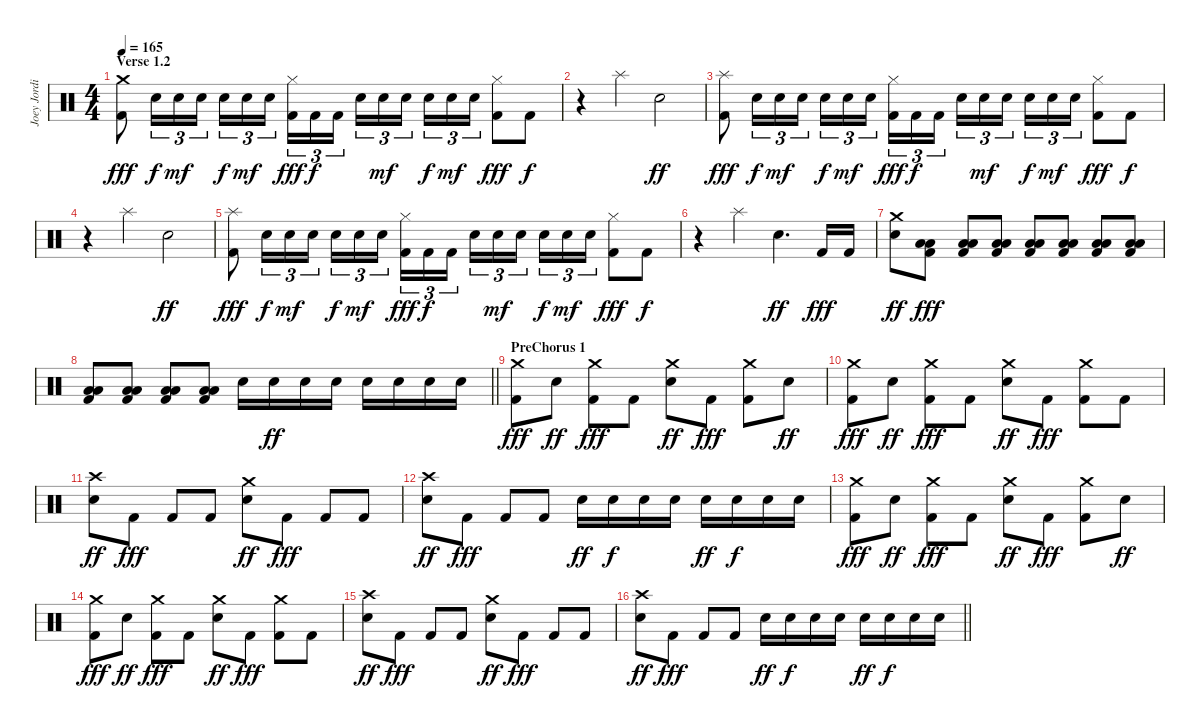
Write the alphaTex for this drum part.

\track ("Joey Jordison" "Joey Jordi") {instrument percussion}
\staff {score}
\articulation defaults
\ts (4 4)
\section ("" "Verse 1.2")
\tempo 165
\clef neutral
\ks c
("Crash medium (hit)" "Kick (hit) 2").8{dy fff} "Electric Snare (hit)".16{tu (3 2) dy f} "Electric Snare (hit)".16{tu (3 2) dy mf} "Electric Snare (hit)".16{tu (3 2)} "Electric Snare (hit)".16{tu (3 2) dy f} "Electric Snare (hit)".16{tu (3 2) dy mf} "Electric Snare (hit)".16{tu (3 2) beam splitsecondary} ("Hi-Hat (closed)" "Kick (hit) 2").16{tu (3 2) dy fff} "Kick (hit) 2".16{tu (3 2) dy f} "Kick (hit) 2".16{tu (3 2)} "Electric Snare (hit)".16{tu (3 2)} "Electric Snare (hit)".16{tu (3 2) dy mf} "Electric Snare (hit)".16{tu (3 2) beam splitsecondary} "Electric Snare (hit)".16{tu (3 2) dy f} "Electric Snare (hit)".16{tu (3 2) dy mf} "Electric Snare (hit)".16{tu (3 2)} ("Hi-Hat (closed)" "Kick (hit) 2").8{dy fff} "Kick (hit) 2".8{dy f} |
r.4 "Splash (hit)".4 "Electric Snare (hit)".2{dy ff} |
("Splash (hit)" "Kick (hit) 2").8{dy fff} "Electric Snare (hit)".16{tu (3 2) dy f} "Electric Snare (hit)".16{tu (3 2) dy mf} "Electric Snare (hit)".16{tu (3 2)} "Electric Snare (hit)".16{tu (3 2) dy f} "Electric Snare (hit)".16{tu (3 2) dy mf} "Electric Snare (hit)".16{tu (3 2) beam splitsecondary} ("Hi-Hat (closed)" "Kick (hit) 2").16{tu (3 2) dy fff} "Kick (hit) 2".16{tu (3 2) dy f} "Kick (hit) 2".16{tu (3 2)} "Electric Snare (hit)".16{tu (3 2)} "Electric Snare (hit)".16{tu (3 2) dy mf} "Electric Snare (hit)".16{tu (3 2) beam splitsecondary} "Electric Snare (hit)".16{tu (3 2) dy f} "Electric Snare (hit)".16{tu (3 2) dy mf} "Electric Snare (hit)".16{tu (3 2)} ("Hi-Hat (closed)" "Kick (hit) 2").8{dy fff} "Kick (hit) 2".8{dy f} |
r.4 "Splash (hit)".4 "Electric Snare (hit)".2{dy ff} |
("Splash (hit)" "Kick (hit) 2").8{dy fff} "Electric Snare (hit)".16{tu (3 2) dy f} "Electric Snare (hit)".16{tu (3 2) dy mf} "Electric Snare (hit)".16{tu (3 2)} "Electric Snare (hit)".16{tu (3 2) dy f} "Electric Snare (hit)".16{tu (3 2) dy mf} "Electric Snare (hit)".16{tu (3 2) beam splitsecondary} ("Hi-Hat (closed)" "Kick (hit) 2").16{tu (3 2) dy fff} "Kick (hit) 2".16{tu (3 2) dy f} "Kick (hit) 2".16{tu (3 2)} "Electric Snare (hit)".16{tu (3 2)} "Electric Snare (hit)".16{tu (3 2) dy mf} "Electric Snare (hit)".16{tu (3 2) beam splitsecondary} "Electric Snare (hit)".16{tu (3 2) dy f} "Electric Snare (hit)".16{tu (3 2) dy mf} "Electric Snare (hit)".16{tu (3 2)} ("Hi-Hat (closed)" "Kick (hit) 2").8{dy fff} "Kick (hit) 2".8{dy f} |
r.4 "Splash (hit)".4 "Electric Snare (hit)".4{d dy ff} "Kick (hit) 2".16{dy fff} "Kick (hit) 2".16 |
("Crash medium (hit)" "Electric Snare (hit)").8{dy ff} ("Low Tom (hit)" "Low Floor Tom (hit)" "Kick (hit) 2").8{dy fff} ("Low Tom (hit)" "Low Floor Tom (hit)" "Kick (hit) 2").8 ("Low Tom (hit)" "Low Floor Tom (hit)" "Kick (hit) 2").8 ("Low Tom (hit)" "Low Floor Tom (hit)" "Kick (hit) 2").8 ("Low Tom (hit)" "Low Floor Tom (hit)" "Kick (hit) 2").8 ("Low Tom (hit)" "Low Floor Tom (hit)" "Kick (hit) 2").8 ("Low Tom (hit)" "Low Floor Tom (hit)" "Kick (hit) 2").8 |
\barLineRight lightlight
("Low Tom (hit)" "Low Floor Tom (hit)" "Kick (hit) 2").8 ("Low Tom (hit)" "Low Floor Tom (hit)" "Kick (hit) 2").8 ("Low Tom (hit)" "Low Floor Tom (hit)" "Kick (hit) 2").8 ("Low Tom (hit)" "Low Floor Tom (hit)" "Kick (hit) 2").8 "Electric Snare (hit)".16 "Electric Snare (hit)".16{dy ff} "Electric Snare (hit)".16 "Electric Snare (hit)".16 "Electric Snare (hit)".16 "Electric Snare (hit)".16 "Electric Snare (hit)".16 "Electric Snare (hit)".16 |
\section ("" "PreChorus 1")
("Crash medium (hit)" "Kick (hit) 2").8{dy fff} "Electric Snare (hit)".8{dy ff} ("Crash medium (hit)" "Kick (hit) 2").8{dy fff} "Kick (hit) 2".8 ("Crash medium (hit)" "Electric Snare (hit)").8{dy ff} "Kick (hit) 2".8{dy fff} ("Crash medium (hit)" "Kick (hit) 2").8 "Electric Snare (hit)".8{dy ff} |
("Crash medium (hit)" "Kick (hit) 2").8{dy fff} "Electric Snare (hit)".8{dy ff} ("Crash medium (hit)" "Kick (hit) 2").8{dy fff} "Kick (hit) 2".8 ("Crash medium (hit)" "Electric Snare (hit)").8{dy ff} "Kick (hit) 2".8{dy fff} ("Crash medium (hit)" "Kick (hit) 2").8 "Kick (hit) 2".8 |
("Crash high (hit)" "Electric Snare (hit)").8{dy ff} "Kick (hit) 2".8{dy fff} "Kick (hit) 2".8 "Kick (hit) 2".8 ("Crash medium (hit)" "Electric Snare (hit)").8{dy ff} "Kick (hit) 2".8{dy fff} "Kick (hit) 2".8 "Kick (hit) 2".8 |
("Crash high (hit)" "Electric Snare (hit)").8{dy ff} "Kick (hit) 2".8{dy fff} "Kick (hit) 2".8 "Kick (hit) 2".8 "Electric Snare (hit)".16{dy ff} "Electric Snare (hit)".16{dy f} "Electric Snare (hit)".16 "Electric Snare (hit)".16 "Electric Snare (hit)".16{dy ff} "Electric Snare (hit)".16{dy f} "Electric Snare (hit)".16 "Electric Snare (hit)".16 |
("Crash medium (hit)" "Kick (hit) 2").8{dy fff} "Electric Snare (hit)".8{dy ff} ("Crash medium (hit)" "Kick (hit) 2").8{dy fff} "Kick (hit) 2".8 ("Crash medium (hit)" "Electric Snare (hit)").8{dy ff} "Kick (hit) 2".8{dy fff} ("Crash medium (hit)" "Kick (hit) 2").8 "Electric Snare (hit)".8{dy ff} |
("Crash medium (hit)" "Kick (hit) 2").8{dy fff} "Electric Snare (hit)".8{dy ff} ("Crash medium (hit)" "Kick (hit) 2").8{dy fff} "Kick (hit) 2".8 ("Crash medium (hit)" "Electric Snare (hit)").8{dy ff} "Kick (hit) 2".8{dy fff} ("Crash medium (hit)" "Kick (hit) 2").8 "Kick (hit) 2".8 |
("Crash high (hit)" "Electric Snare (hit)").8{dy ff} "Kick (hit) 2".8{dy fff} "Kick (hit) 2".8 "Kick (hit) 2".8 ("Crash medium (hit)" "Electric Snare (hit)").8{dy ff} "Kick (hit) 2".8{dy fff} "Kick (hit) 2".8 "Kick (hit) 2".8 |
\barLineRight lightlight
("Crash high (hit)" "Electric Snare (hit)").8{dy ff} "Kick (hit) 2".8{dy fff} "Kick (hit) 2".8 "Kick (hit) 2".8 "Electric Snare (hit)".16{dy ff} "Electric Snare (hit)".16{dy f} "Electric Snare (hit)".16 "Electric Snare (hit)".16 "Electric Snare (hit)".16{dy ff} "Electric Snare (hit)".16{dy f} "Electric Snare (hit)".16 "Electric Snare (hit)".16
